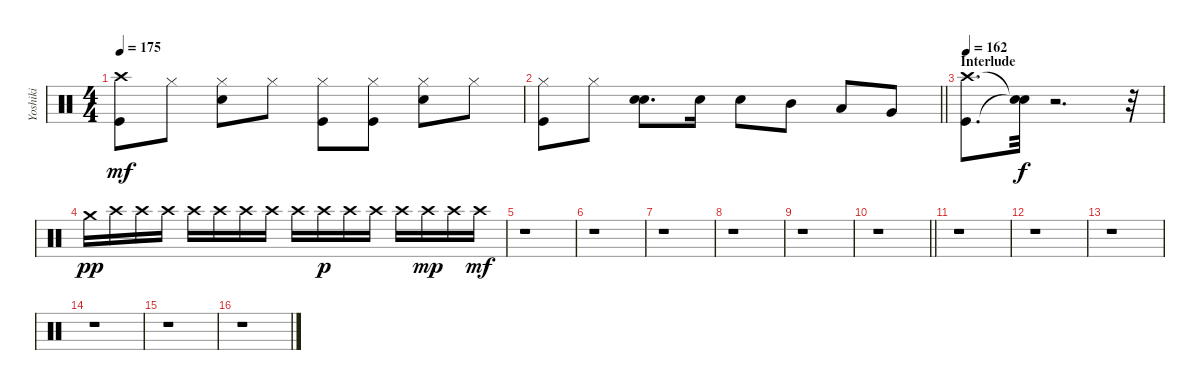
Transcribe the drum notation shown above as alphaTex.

\track ("Yoshiki" "Yoshiki") {instrument percussion}
\staff {score}
\articulation defaults
\ts (4 4)
\tempo 175
\clef neutral
\ks c
("Crash high (hit)" "Kick (hit)").8{dy mf} "Hi-Hat (closed)".8 ("Snare (hit) 2" "Hi-Hat (closed)").8 "Hi-Hat (closed)".8 ("Hi-Hat (closed)" "Kick (hit)").8 ("Hi-Hat (closed)" "Kick (hit)").8 ("Snare (hit) 2" "Hi-Hat (closed)").8 "Hi-Hat (closed)".8 |
\barLineRight lightlight
("Hi-Hat (closed)" "Kick (hit)").8 "Hi-Hat (closed)".8 ("Snare (hit) 2" "Snare (hit) 2").8{d} "Snare (hit) 2".16 "Snare (hit) 2".8 "Mid Tom (hit)".8 "Low Tom (hit)".8 "Very Low Tom (hit)".8 |
\section ("" "Interlude")
\tempo 162
("Crash high (hit)" "Kick (hit)").8{d} ("Snare (hit)"{t} "Snare (hit)"{t}).32{dy f} r.2{d} r.32 |
"Crash medium (hit)".16{dy pp} "Crash high (hit)".16 "Crash high (hit)".16 "Crash high (hit)".16 "Crash high (hit)".16 "Crash high (hit)".16 "Crash high (hit)".16 "Crash high (hit)".16 "Crash high (hit)".16 "Crash high (hit)".16{dy p} "Crash high (hit)".16 "Crash high (hit)".16 "Crash high (hit)".16 "Crash high (hit)".16{dy mp} "Crash high (hit)".16 "Crash high (hit)".16{dy mf} |
r.1 |
r.1 |
r.1 |
r.1 |
r.1 |
\barLineRight lightlight
r.1 |
r.1 |
r.1 |
r.1 |
r.1 |
r.1 |
r.1
